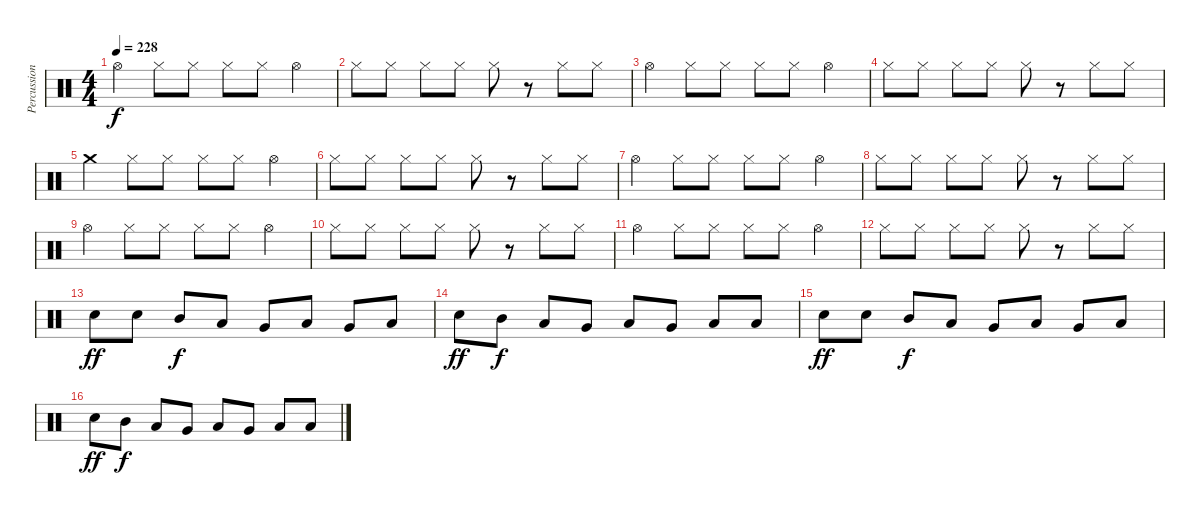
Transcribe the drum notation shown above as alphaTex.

\track ("Percussion" "Percussion") {instrument percussion}
\staff {score}
\articulation defaults
\ts (4 4)
\tempo 228
\clef neutral
\ks c "Hi-Hat (open)".4{dy f} "Hi-Hat (closed)".8 "Hi-Hat (closed)".8 "Hi-Hat (closed)".8 "Hi-Hat (closed)".8 "Hi-Hat (open)".4
|
"Hi-Hat (closed)".8 "Hi-Hat (closed)".8 "Hi-Hat (closed)".8 "Hi-Hat (closed)".8 "Hi-Hat (closed)".8 r.8 "Hi-Hat (closed)".8 "Hi-Hat (closed)".8 |
"Hi-Hat (open)".4 "Hi-Hat (closed)".8 "Hi-Hat (closed)".8 "Hi-Hat (closed)".8 "Hi-Hat (closed)".8 "Hi-Hat (open)".4 |
"Hi-Hat (closed)".8 "Hi-Hat (closed)".8 "Hi-Hat (closed)".8 "Hi-Hat (closed)".8 "Hi-Hat (closed)".8 r.8 "Hi-Hat (closed)".8 "Hi-Hat (closed)".8 |
"Crash medium (hit)".4 "Hi-Hat (closed)".8 "Hi-Hat (closed)".8 "Hi-Hat (closed)".8 "Hi-Hat (closed)".8 "Hi-Hat (open)".4 |
"Hi-Hat (closed)".8 "Hi-Hat (closed)".8 "Hi-Hat (closed)".8 "Hi-Hat (closed)".8 "Hi-Hat (closed)".8 r.8 "Hi-Hat (closed)".8 "Hi-Hat (closed)".8 |
"Hi-Hat (open)".4 "Hi-Hat (closed)".8 "Hi-Hat (closed)".8 "Hi-Hat (closed)".8 "Hi-Hat (closed)".8 "Hi-Hat (open)".4 |
"Hi-Hat (closed)".8 "Hi-Hat (closed)".8 "Hi-Hat (closed)".8 "Hi-Hat (closed)".8 "Hi-Hat (closed)".8 r.8 "Hi-Hat (closed)".8 "Hi-Hat (closed)".8 |
"Hi-Hat (open)".4 "Hi-Hat (closed)".8 "Hi-Hat (closed)".8 "Hi-Hat (closed)".8 "Hi-Hat (closed)".8 "Hi-Hat (open)".4 |
"Hi-Hat (closed)".8 "Hi-Hat (closed)".8 "Hi-Hat (closed)".8 "Hi-Hat (closed)".8 "Hi-Hat (closed)".8 r.8 "Hi-Hat (closed)".8 "Hi-Hat (closed)".8 |
"Hi-Hat (open)".4 "Hi-Hat (closed)".8 "Hi-Hat (closed)".8 "Hi-Hat (closed)".8 "Hi-Hat (closed)".8 "Hi-Hat (open)".4 |
"Hi-Hat (closed)".8 "Hi-Hat (closed)".8 "Hi-Hat (closed)".8 "Hi-Hat (closed)".8 "Hi-Hat (closed)".8 r.8 "Hi-Hat (closed)".8 "Hi-Hat (closed)".8 |
"Snare (hit) 2".8{dy ff} "Snare (hit) 2".8 "Mid Tom (hit)".8{dy f} "Low Tom (hit)".8 "Very Low Tom (hit)".8 "Low Tom (hit)".8 "Very Low Tom (hit)".8 "Low Floor Tom (hit)".8 |
"Snare (hit) 2".8{dy ff} "Mid Tom (hit)".8{dy f} "Low Tom (hit)".8 "Very Low Tom (hit)".8 "Low Tom (hit)".8 "Very Low Tom (hit)".8 "Low Floor Tom (hit)".8 "Low Floor Tom (hit)".8 |
"Snare (hit) 2".8{dy ff} "Snare (hit) 2".8 "Mid Tom (hit)".8{dy f} "Low Tom (hit)".8 "Very Low Tom (hit)".8 "Low Tom (hit)".8 "Very Low Tom (hit)".8 "Low Floor Tom (hit)".8 |
"Snare (hit) 2".8{dy ff} "Mid Tom (hit)".8{dy f} "Low Tom (hit)".8 "Very Low Tom (hit)".8 "Low Tom (hit)".8 "Very Low Tom (hit)".8 "Low Floor Tom (hit)".8 "Low Floor Tom (hit)".8
